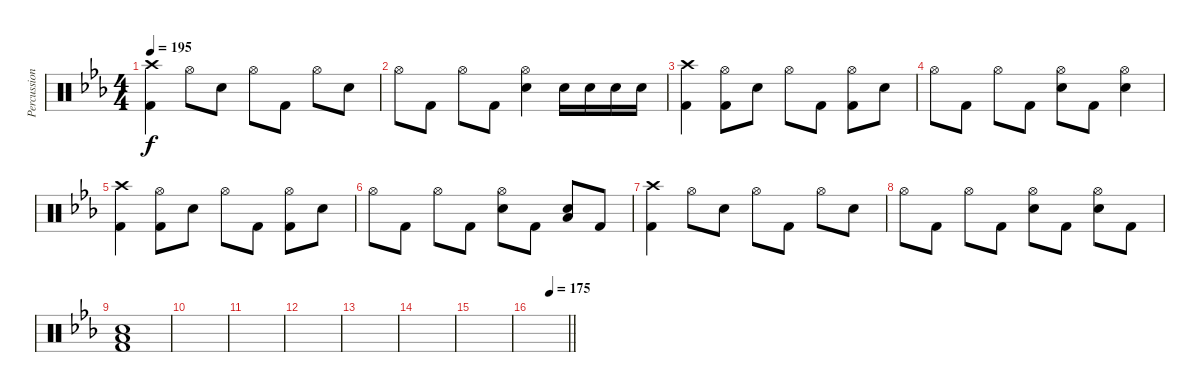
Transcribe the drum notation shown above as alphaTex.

\track ("Percussion" "Percussion") {instrument percussion}
\staff {score}
\articulation defaults
\ts (4 4)
\tempo 195
\clef neutral
\ks eb
("Crash high (hit)" "Kick (hit) 2").4{dy f} "Hi-Hat (open)".8 "Snare (hit) 2".8 "Hi-Hat (open)".8 "Kick (hit) 2".8 "Hi-Hat (open)".8 "Snare (hit) 2".8 |
"Hi-Hat (open)".8 "Kick (hit) 2".8 "Hi-Hat (open)".8 "Kick (hit) 2".8 ("Hi-Hat (open)" "Snare (hit) 2").4 "Snare (hit) 2".16 "Snare (hit) 2".16 "Snare (hit) 2".16 "Snare (hit) 2".16 |
("Crash high (hit)" "Kick (hit) 2").4 ("Hi-Hat (open)" "Kick (hit) 2").8 "Snare (hit) 2".8 "Hi-Hat (open)".8 "Kick (hit) 2".8 ("Hi-Hat (open)" "Kick (hit) 2").8 "Snare (hit) 2".8 |
"Hi-Hat (open)".8 "Kick (hit) 2".8 "Hi-Hat (open)".8 "Kick (hit) 2".8 ("Hi-Hat (open)" "Snare (hit) 2").8 "Kick (hit) 2".8 ("Hi-Hat (open)" "Snare (hit) 2").4 |
("Crash high (hit)" "Kick (hit) 2").4 ("Hi-Hat (open)" "Kick (hit) 2").8 "Snare (hit) 2".8 "Hi-Hat (open)".8 "Kick (hit) 2".8 ("Hi-Hat (open)" "Kick (hit) 2").8 "Snare (hit) 2".8 |
"Hi-Hat (open)".8 "Kick (hit) 2".8 "Hi-Hat (open)".8 "Kick (hit) 2".8 ("Hi-Hat (open)" "Snare (hit) 2").8 "Kick (hit) 2".8 ("Low Tom (hit)" "Snare (hit) 2").8 "Kick (hit) 2".8 |
("Crash high (hit)" "Kick (hit) 2").4 "Hi-Hat (open)".8 "Snare (hit) 2".8 "Hi-Hat (open)".8 "Kick (hit) 2".8 "Hi-Hat (open)".8 "Snare (hit) 2".8 |
"Hi-Hat (open)".8 "Kick (hit) 2".8 "Hi-Hat (open)".8 "Kick (hit) 2".8 ("Hi-Hat (open)" "Snare (hit) 2").8 "Kick (hit) 2".8 ("Hi-Hat (open)" "Snare (hit) 2").8 "Kick (hit) 2".8 |
("Low Tom (hit)" "Snare (hit) 2" "Kick (hit) 2").1 |
|
|
|
|
|
|
\tempo (175 0.5)
\barLineRight lightlight
